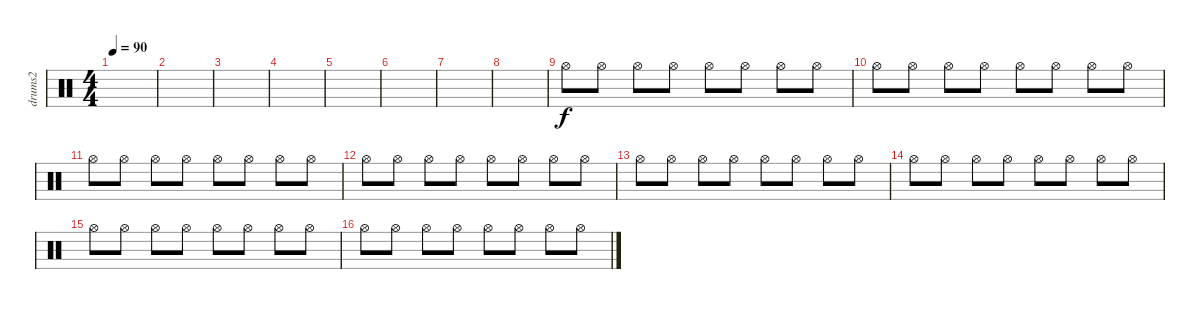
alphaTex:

\track ("drums2" "drums2") {instrument percussion}
\staff {score}
\articulation defaults
\ts (4 4)
\tempo 90
\clef neutral
\ks c
|
|
|
|
|
|
|
|
"Hi-Hat (open)".8 "Hi-Hat (open)".8 "Hi-Hat (open)".8 "Hi-Hat (open)".8 "Hi-Hat (open)".8 "Hi-Hat (open)".8 "Hi-Hat (open)".8 "Hi-Hat (open)".8 |
"Hi-Hat (open)".8 "Hi-Hat (open)".8 "Hi-Hat (open)".8 "Hi-Hat (open)".8 "Hi-Hat (open)".8 "Hi-Hat (open)".8 "Hi-Hat (open)".8 "Hi-Hat (open)".8 |
"Hi-Hat (open)".8 "Hi-Hat (open)".8 "Hi-Hat (open)".8 "Hi-Hat (open)".8 "Hi-Hat (open)".8 "Hi-Hat (open)".8 "Hi-Hat (open)".8 "Hi-Hat (open)".8 |
"Hi-Hat (open)".8 "Hi-Hat (open)".8 "Hi-Hat (open)".8 "Hi-Hat (open)".8 "Hi-Hat (open)".8 "Hi-Hat (open)".8 "Hi-Hat (open)".8 "Hi-Hat (open)".8 |
"Hi-Hat (open)".8 "Hi-Hat (open)".8 "Hi-Hat (open)".8 "Hi-Hat (open)".8 "Hi-Hat (open)".8 "Hi-Hat (open)".8 "Hi-Hat (open)".8 "Hi-Hat (open)".8 |
"Hi-Hat (open)".8 "Hi-Hat (open)".8 "Hi-Hat (open)".8 "Hi-Hat (open)".8 "Hi-Hat (open)".8 "Hi-Hat (open)".8 "Hi-Hat (open)".8 "Hi-Hat (open)".8 |
"Hi-Hat (open)".8 "Hi-Hat (open)".8 "Hi-Hat (open)".8 "Hi-Hat (open)".8 "Hi-Hat (open)".8 "Hi-Hat (open)".8 "Hi-Hat (open)".8 "Hi-Hat (open)".8 |
"Hi-Hat (open)".8 "Hi-Hat (open)".8 "Hi-Hat (open)".8 "Hi-Hat (open)".8 "Hi-Hat (open)".8 "Hi-Hat (open)".8 "Hi-Hat (open)".8 "Hi-Hat (open)".8
